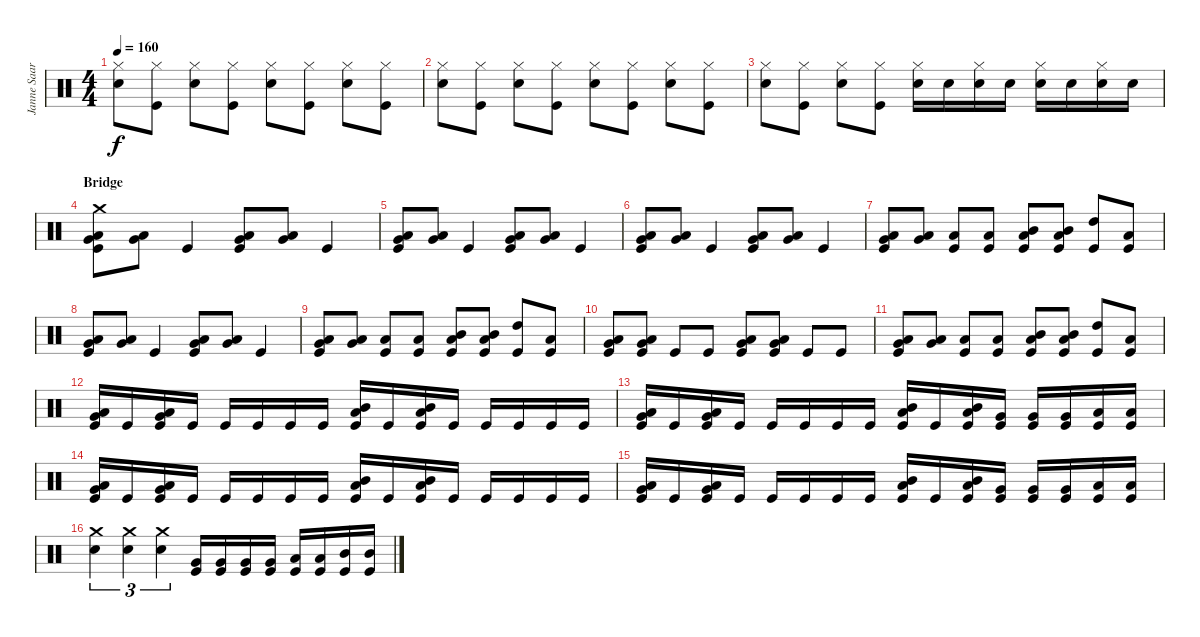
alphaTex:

\track ("Janne Saarenpaa" "Janne Saar") {instrument percussion}
\staff {score}
\articulation defaults
\ts (4 4)
\tempo 160
\clef neutral
\ks c
("Hi-Hat (closed)" "Snare (hit) 2").8{dy f} ("Hi-Hat (closed)" "Kick (hit)").8 ("Hi-Hat (closed)" "Snare (hit) 2").8 ("Hi-Hat (closed)" "Kick (hit)").8 ("Hi-Hat (closed)" "Snare (hit) 2").8 ("Hi-Hat (closed)" "Kick (hit)").8 ("Hi-Hat (closed)" "Snare (hit) 2").8 ("Hi-Hat (closed)" "Kick (hit)").8 |
("Hi-Hat (closed)" "Snare (hit) 2").8 ("Hi-Hat (closed)" "Kick (hit)").8 ("Hi-Hat (closed)" "Snare (hit) 2").8 ("Hi-Hat (closed)" "Kick (hit)").8 ("Hi-Hat (closed)" "Snare (hit) 2").8 ("Hi-Hat (closed)" "Kick (hit)").8 ("Hi-Hat (closed)" "Snare (hit) 2").8 ("Hi-Hat (closed)" "Kick (hit)").8 |
("Hi-Hat (closed)" "Snare (hit) 2").8 ("Hi-Hat (closed)" "Kick (hit)").8 ("Hi-Hat (closed)" "Snare (hit) 2").8 ("Hi-Hat (closed)" "Kick (hit)").8 ("Hi-Hat (closed)" "Snare (hit) 2").16 "Snare (hit) 2".16 ("Hi-Hat (closed)" "Snare (hit) 2").16 "Snare (hit) 2".16 ("Hi-Hat (closed)" "Snare (hit) 2").16 "Snare (hit) 2".16 ("Hi-Hat (closed)" "Snare (hit) 2").16 "Snare (hit) 2".16 |
\section ("" "Bridge")
("Low Floor Tom (hit)" "Very Low Tom (hit)" "Kick (hit)" "Crash medium (hit)").8 ("Low Floor Tom (hit)" "Very Low Tom (hit)").8 "Kick (hit)".4 ("Low Floor Tom (hit)" "Very Low Tom (hit)" "Kick (hit)").8 ("Low Floor Tom (hit)" "Very Low Tom (hit)").8 "Kick (hit)".4 |
("Low Floor Tom (hit)" "Very Low Tom (hit)" "Kick (hit)").8 ("Low Floor Tom (hit)" "Very Low Tom (hit)").8 "Kick (hit)".4 ("Low Floor Tom (hit)" "Very Low Tom (hit)" "Kick (hit)").8 ("Low Floor Tom (hit)" "Very Low Tom (hit)").8 "Kick (hit)".4 |
("Low Floor Tom (hit)" "Very Low Tom (hit)" "Kick (hit)").8 ("Low Floor Tom (hit)" "Very Low Tom (hit)").8 "Kick (hit)".4 ("Low Floor Tom (hit)" "Very Low Tom (hit)" "Kick (hit)").8 ("Low Floor Tom (hit)" "Very Low Tom (hit)").8 "Kick (hit)".4 |
("Low Floor Tom (hit)" "Very Low Tom (hit)" "Kick (hit)").8 ("Low Floor Tom (hit)" "Very Low Tom (hit)").8 ("Low Tom (hit)" "Kick (hit)").8 ("Low Tom (hit)" "Kick (hit)").8 ("Low Floor Tom (hit)" "Mid Tom (hit)" "Kick (hit)").8 ("Low Floor Tom (hit)" "Mid Tom (hit)" "Kick (hit)").8 ("High Tom (hit)" "Kick (hit)").8 ("Low Tom (hit)" "Kick (hit)").8 |
("Low Floor Tom (hit)" "Very Low Tom (hit)" "Kick (hit)").8 ("Low Floor Tom (hit)" "Very Low Tom (hit)").8 "Kick (hit)".4 ("Low Floor Tom (hit)" "Very Low Tom (hit)" "Kick (hit)").8 ("Low Floor Tom (hit)" "Very Low Tom (hit)").8 "Kick (hit)".4 |
("Low Floor Tom (hit)" "Very Low Tom (hit)" "Kick (hit)").8 ("Low Floor Tom (hit)" "Very Low Tom (hit)").8 ("Low Tom (hit)" "Kick (hit)").8 ("Low Tom (hit)" "Kick (hit)").8 ("Low Floor Tom (hit)" "Mid Tom (hit)" "Kick (hit)").8 ("Low Floor Tom (hit)" "Mid Tom (hit)" "Kick (hit)").8 ("High Tom (hit)" "Kick (hit)").8 ("Low Tom (hit)" "Kick (hit)").8 |
("Low Floor Tom (hit)" "Very Low Tom (hit)" "Kick (hit)").8 ("Low Floor Tom (hit)" "Very Low Tom (hit)" "Kick (hit)").8 "Kick (hit)".8 "Kick (hit)".8 ("Low Floor Tom (hit)" "Very Low Tom (hit)" "Kick (hit)").8 ("Low Floor Tom (hit)" "Very Low Tom (hit)" "Kick (hit)").8 "Kick (hit)".8 "Kick (hit)".8 |
("Low Floor Tom (hit)" "Very Low Tom (hit)" "Kick (hit)").8 ("Low Floor Tom (hit)" "Very Low Tom (hit)").8 ("Low Tom (hit)" "Kick (hit)").8 ("Low Tom (hit)" "Kick (hit)").8 ("Low Floor Tom (hit)" "Mid Tom (hit)" "Kick (hit)").8 ("Low Floor Tom (hit)" "Mid Tom (hit)" "Kick (hit)").8 ("High Tom (hit)" "Kick (hit)").8 ("Low Tom (hit)" "Kick (hit)").8 |
("Low Floor Tom (hit)" "Very Low Tom (hit)" "Kick (hit)").16 "Kick (hit)".16 ("Low Floor Tom (hit)" "Very Low Tom (hit)" "Kick (hit)").16 "Kick (hit)".16 "Kick (hit)".16 "Kick (hit)".16 "Kick (hit)".16 "Kick (hit)".16 ("Low Floor Tom (hit)" "Mid Tom (hit)" "Kick (hit)").16 "Kick (hit)".16 ("Low Floor Tom (hit)" "Mid Tom (hit)" "Kick (hit)").16 "Kick (hit)".16 "Kick (hit)".16 "Kick (hit)".16 "Kick (hit)".16 "Kick (hit)".16 |
("Low Floor Tom (hit)" "Very Low Tom (hit)" "Kick (hit)").16 "Kick (hit)".16 ("Low Floor Tom (hit)" "Very Low Tom (hit)" "Kick (hit)").16 "Kick (hit)".16 "Kick (hit)".16 "Kick (hit)".16 "Kick (hit)".16 "Kick (hit)".16 ("Low Floor Tom (hit)" "Mid Tom (hit)" "Kick (hit)").16 "Kick (hit)".16 ("Low Floor Tom (hit)" "Mid Tom (hit)" "Kick (hit)").16 ("Very Low Tom (hit)" "Kick (hit)").16 ("Very Low Tom (hit)" "Kick (hit)").16 ("Very Low Tom (hit)" "Kick (hit)").16 ("Low Tom (hit)" "Kick (hit)").16 ("Low Tom (hit)" "Kick (hit)").16 |
("Low Floor Tom (hit)" "Very Low Tom (hit)" "Kick (hit)").16 "Kick (hit)".16 ("Low Floor Tom (hit)" "Very Low Tom (hit)" "Kick (hit)").16 "Kick (hit)".16 "Kick (hit)".16 "Kick (hit)".16 "Kick (hit)".16 "Kick (hit)".16 ("Low Floor Tom (hit)" "Mid Tom (hit)" "Kick (hit)").16 "Kick (hit)".16 ("Low Floor Tom (hit)" "Mid Tom (hit)" "Kick (hit)").16 "Kick (hit)".16 "Kick (hit)".16 "Kick (hit)".16 "Kick (hit)".16 "Kick (hit)".16 |
("Low Floor Tom (hit)" "Very Low Tom (hit)" "Kick (hit)").16 "Kick (hit)".16 ("Low Floor Tom (hit)" "Very Low Tom (hit)" "Kick (hit)").16 "Kick (hit)".16 "Kick (hit)".16 "Kick (hit)".16 "Kick (hit)".16 "Kick (hit)".16 ("Low Floor Tom (hit)" "Mid Tom (hit)" "Kick (hit)").16 "Kick (hit)".16 ("Low Floor Tom (hit)" "Mid Tom (hit)" "Kick (hit)").16 ("Very Low Tom (hit)" "Kick (hit)").16 ("Very Low Tom (hit)" "Kick (hit)").16 ("Very Low Tom (hit)" "Kick (hit)").16 ("Low Tom (hit)" "Kick (hit)").16 ("Low Tom (hit)" "Kick (hit)").16 |
("Snare (hit) 2" "Crash medium (hit)").4{tu (3 2)} ("Snare (hit) 2" "Crash medium (hit)").4{tu (3 2)} ("Snare (hit) 2" "Crash medium (hit)").4{tu (3 2)} ("Kick (hit)" "Very Low Tom (hit)").16 ("Kick (hit)" "Very Low Tom (hit)").16 ("Kick (hit)" "Very Low Tom (hit)").16 ("Kick (hit)" "Very Low Tom (hit)").16 ("Kick (hit)" "Low Tom (hit)").16 ("Kick (hit)" "Low Tom (hit)").16 ("Kick (hit)" "Mid Tom (hit)").16 ("Kick (hit)" "Mid Tom (hit)").16
